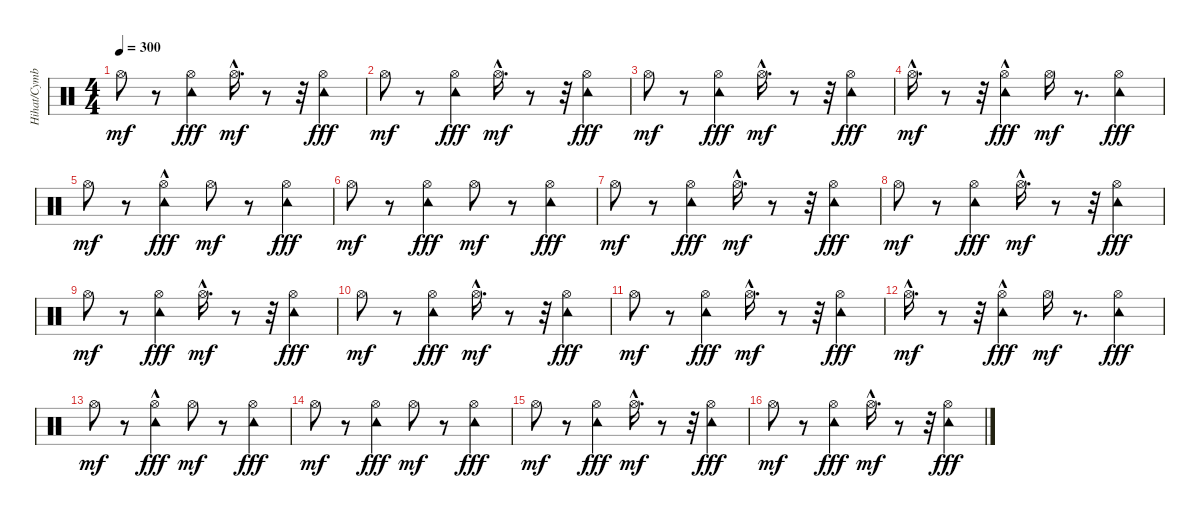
\track ("Hihat/Cymbals/Tambourine" "Hihat/Cymb") {instrument percussion}
\staff {score}
\articulation defaults
\ts (4 4)
\tempo 300
\clef neutral
\ks c "Hi-Hat (open)".8{dy mf}
r.8 ("Hi-Hat (open)" "Tambourine (hit)").4{dy fff} "Hi-Hat (open)"{hac}.16{d dy mf} r.8 r.32 ("Hi-Hat (open)" "Tambourine (hit)").4{dy fff} |
"Hi-Hat (open)".8{dy mf} r.8 ("Hi-Hat (open)" "Tambourine (hit)").4{dy fff} "Hi-Hat (open)"{hac}.16{d dy mf} r.8 r.32 ("Hi-Hat (open)" "Tambourine (hit)").4{dy fff} |
"Hi-Hat (open)".8{dy mf} r.8 ("Hi-Hat (open)" "Tambourine (hit)").4{dy fff} "Hi-Hat (open)"{hac}.16{d dy mf} r.8 r.32 ("Hi-Hat (open)" "Tambourine (hit)").4{dy fff} |
"Hi-Hat (open)"{hac}.16{d dy mf} r.8 r.32 ("Hi-Hat (open)"{hac} "Tambourine (hit)").4{dy fff} "Hi-Hat (open)".16{dy mf} r.8{d} ("Hi-Hat (open)" "Tambourine (hit)").4{dy fff} |
"Hi-Hat (open)".8{dy mf} r.8 ("Hi-Hat (open)"{hac} "Tambourine (hit)").4{dy fff} "Hi-Hat (open)".8{dy mf} r.8 ("Hi-Hat (open)" "Tambourine (hit)").4{dy fff} |
"Hi-Hat (open)".8{dy mf} r.8 ("Hi-Hat (open)" "Tambourine (hit)").4{dy fff} "Hi-Hat (open)".8{dy mf} r.8 ("Hi-Hat (open)" "Tambourine (hit)").4{dy fff} |
"Hi-Hat (open)".8{dy mf} r.8 ("Hi-Hat (open)" "Tambourine (hit)").4{dy fff} "Hi-Hat (open)"{hac}.16{d dy mf} r.8 r.32 ("Hi-Hat (open)" "Tambourine (hit)").4{dy fff} |
"Hi-Hat (open)".8{dy mf} r.8 ("Hi-Hat (open)" "Tambourine (hit)").4{dy fff} "Hi-Hat (open)"{hac}.16{d dy mf} r.8 r.32 ("Hi-Hat (open)" "Tambourine (hit)").4{dy fff} |
"Hi-Hat (open)".8{dy mf} r.8 ("Hi-Hat (open)" "Tambourine (hit)").4{dy fff} "Hi-Hat (open)"{hac}.16{d dy mf} r.8 r.32 ("Hi-Hat (open)" "Tambourine (hit)").4{dy fff} |
"Hi-Hat (open)".8{dy mf} r.8 ("Hi-Hat (open)" "Tambourine (hit)").4{dy fff} "Hi-Hat (open)"{hac}.16{d dy mf} r.8 r.32 ("Hi-Hat (open)" "Tambourine (hit)").4{dy fff} |
"Hi-Hat (open)".8{dy mf} r.8 ("Hi-Hat (open)" "Tambourine (hit)").4{dy fff} "Hi-Hat (open)"{hac}.16{d dy mf} r.8 r.32 ("Hi-Hat (open)" "Tambourine (hit)").4{dy fff} |
"Hi-Hat (open)"{hac}.16{d dy mf} r.8 r.32 ("Hi-Hat (open)"{hac} "Tambourine (hit)").4{dy fff} "Hi-Hat (open)".16{dy mf} r.8{d} ("Hi-Hat (open)" "Tambourine (hit)").4{dy fff} |
"Hi-Hat (open)".8{dy mf} r.8 ("Hi-Hat (open)"{hac} "Tambourine (hit)").4{dy fff} "Hi-Hat (open)".8{dy mf} r.8 ("Hi-Hat (open)" "Tambourine (hit)").4{dy fff} |
"Hi-Hat (open)".8{dy mf} r.8 ("Hi-Hat (open)" "Tambourine (hit)").4{dy fff} "Hi-Hat (open)".8{dy mf} r.8 ("Hi-Hat (open)" "Tambourine (hit)").4{dy fff} |
"Hi-Hat (open)".8{dy mf} r.8 ("Hi-Hat (open)" "Tambourine (hit)").4{dy fff} "Hi-Hat (open)"{hac}.16{d dy mf} r.8 r.32 ("Hi-Hat (open)" "Tambourine (hit)").4{dy fff} |
"Hi-Hat (open)".8{dy mf} r.8 ("Hi-Hat (open)" "Tambourine (hit)").4{dy fff} "Hi-Hat (open)"{hac}.16{d dy mf} r.8 r.32 ("Hi-Hat (open)" "Tambourine (hit)").4{dy fff}
